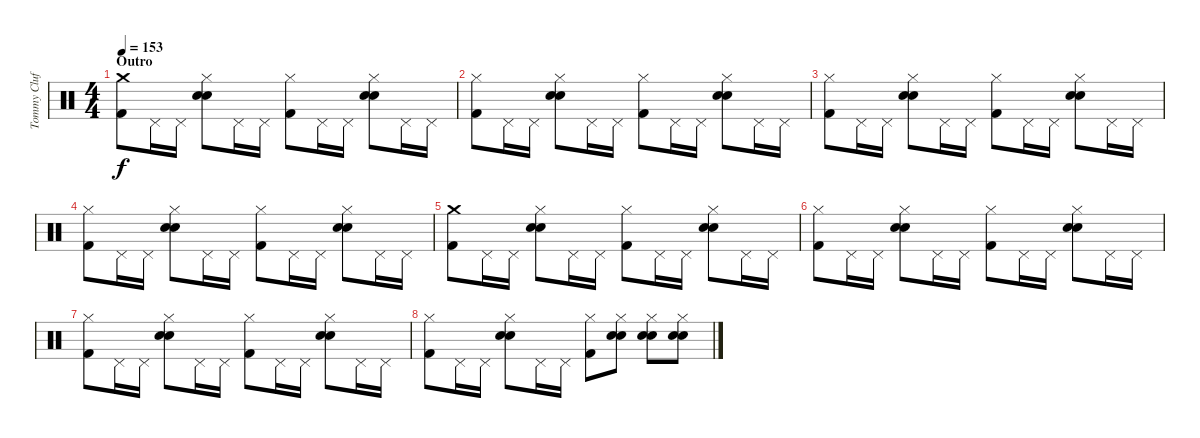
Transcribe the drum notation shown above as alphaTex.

\track ("Tommy Clufetos" "Tommy Cluf") {instrument percussion}
\staff {score}
\articulation defaults
\ts (4 4)
\section ("" "Outro")
\tempo 153
\clef neutral
\ks c
("Crash medium (hit)" "Kick (hit) 2").8{dy f} "Pedal Hi-Hat (hit)".16 "Pedal Hi-Hat (hit)".16 ("Hi-Hat (closed)" "Electric Snare (hit)" "Snare (hit) 2").8 "Pedal Hi-Hat (hit)".16 "Pedal Hi-Hat (hit)".16 ("Hi-Hat (closed)" "Kick (hit) 2").8 "Pedal Hi-Hat (hit)".16 "Pedal Hi-Hat (hit)".16 ("Hi-Hat (closed)" "Electric Snare (hit)" "Snare (hit) 2").8 "Pedal Hi-Hat (hit)".16 "Pedal Hi-Hat (hit)".16 |
("Hi-Hat (closed)" "Kick (hit) 2").8 "Pedal Hi-Hat (hit)".16 "Pedal Hi-Hat (hit)".16 ("Hi-Hat (closed)" "Electric Snare (hit)" "Snare (hit) 2").8 "Pedal Hi-Hat (hit)".16 "Pedal Hi-Hat (hit)".16 ("Hi-Hat (closed)" "Kick (hit) 2").8 "Pedal Hi-Hat (hit)".16 "Pedal Hi-Hat (hit)".16 ("Hi-Hat (closed)" "Electric Snare (hit)" "Snare (hit) 2").8 "Pedal Hi-Hat (hit)".16 "Pedal Hi-Hat (hit)".16 |
("Hi-Hat (closed)" "Kick (hit) 2").8 "Pedal Hi-Hat (hit)".16 "Pedal Hi-Hat (hit)".16 ("Hi-Hat (closed)" "Electric Snare (hit)" "Snare (hit) 2").8 "Pedal Hi-Hat (hit)".16 "Pedal Hi-Hat (hit)".16 ("Hi-Hat (closed)" "Kick (hit) 2").8 "Pedal Hi-Hat (hit)".16 "Pedal Hi-Hat (hit)".16 ("Hi-Hat (closed)" "Electric Snare (hit)" "Snare (hit) 2").8 "Pedal Hi-Hat (hit)".16 "Pedal Hi-Hat (hit)".16 |
("Hi-Hat (closed)" "Kick (hit) 2").8 "Pedal Hi-Hat (hit)".16 "Pedal Hi-Hat (hit)".16 ("Hi-Hat (closed)" "Electric Snare (hit)" "Snare (hit) 2").8 "Pedal Hi-Hat (hit)".16 "Pedal Hi-Hat (hit)".16 ("Hi-Hat (closed)" "Kick (hit) 2").8 "Pedal Hi-Hat (hit)".16 "Pedal Hi-Hat (hit)".16 ("Hi-Hat (closed)" "Electric Snare (hit)" "Snare (hit) 2").8 "Pedal Hi-Hat (hit)".16 "Pedal Hi-Hat (hit)".16 |
("Crash medium (hit)" "Kick (hit) 2").8 "Pedal Hi-Hat (hit)".16 "Pedal Hi-Hat (hit)".16 ("Hi-Hat (closed)" "Electric Snare (hit)" "Snare (hit) 2").8 "Pedal Hi-Hat (hit)".16 "Pedal Hi-Hat (hit)".16 ("Hi-Hat (closed)" "Kick (hit) 2").8 "Pedal Hi-Hat (hit)".16 "Pedal Hi-Hat (hit)".16 ("Hi-Hat (closed)" "Electric Snare (hit)" "Snare (hit) 2").8 "Pedal Hi-Hat (hit)".16 "Pedal Hi-Hat (hit)".16 |
("Hi-Hat (closed)" "Kick (hit) 2").8 "Pedal Hi-Hat (hit)".16 "Pedal Hi-Hat (hit)".16 ("Hi-Hat (closed)" "Electric Snare (hit)" "Snare (hit) 2").8 "Pedal Hi-Hat (hit)".16 "Pedal Hi-Hat (hit)".16 ("Hi-Hat (closed)" "Kick (hit) 2").8 "Pedal Hi-Hat (hit)".16 "Pedal Hi-Hat (hit)".16 ("Hi-Hat (closed)" "Electric Snare (hit)" "Snare (hit) 2").8 "Pedal Hi-Hat (hit)".16 "Pedal Hi-Hat (hit)".16 |
("Hi-Hat (closed)" "Kick (hit) 2").8 "Pedal Hi-Hat (hit)".16 "Pedal Hi-Hat (hit)".16 ("Hi-Hat (closed)" "Electric Snare (hit)" "Snare (hit) 2").8 "Pedal Hi-Hat (hit)".16 "Pedal Hi-Hat (hit)".16 ("Hi-Hat (closed)" "Kick (hit) 2").8 "Pedal Hi-Hat (hit)".16 "Pedal Hi-Hat (hit)".16 ("Hi-Hat (closed)" "Electric Snare (hit)" "Snare (hit) 2").8 "Pedal Hi-Hat (hit)".16 "Pedal Hi-Hat (hit)".16 |
("Hi-Hat (closed)" "Kick (hit) 2").8 "Pedal Hi-Hat (hit)".16 "Pedal Hi-Hat (hit)".16 ("Hi-Hat (closed)" "Electric Snare (hit)" "Snare (hit) 2").8 "Pedal Hi-Hat (hit)".16 "Pedal Hi-Hat (hit)".16 ("Hi-Hat (closed)" "Kick (hit) 2").8 ("Hi-Hat (closed)" "Electric Snare (hit)" "Snare (hit) 2").8 ("Hi-Hat (closed)" "Electric Snare (hit)" "Snare (hit) 2").8 ("Hi-Hat (closed)" "Electric Snare (hit)" "Snare (hit) 2").8
